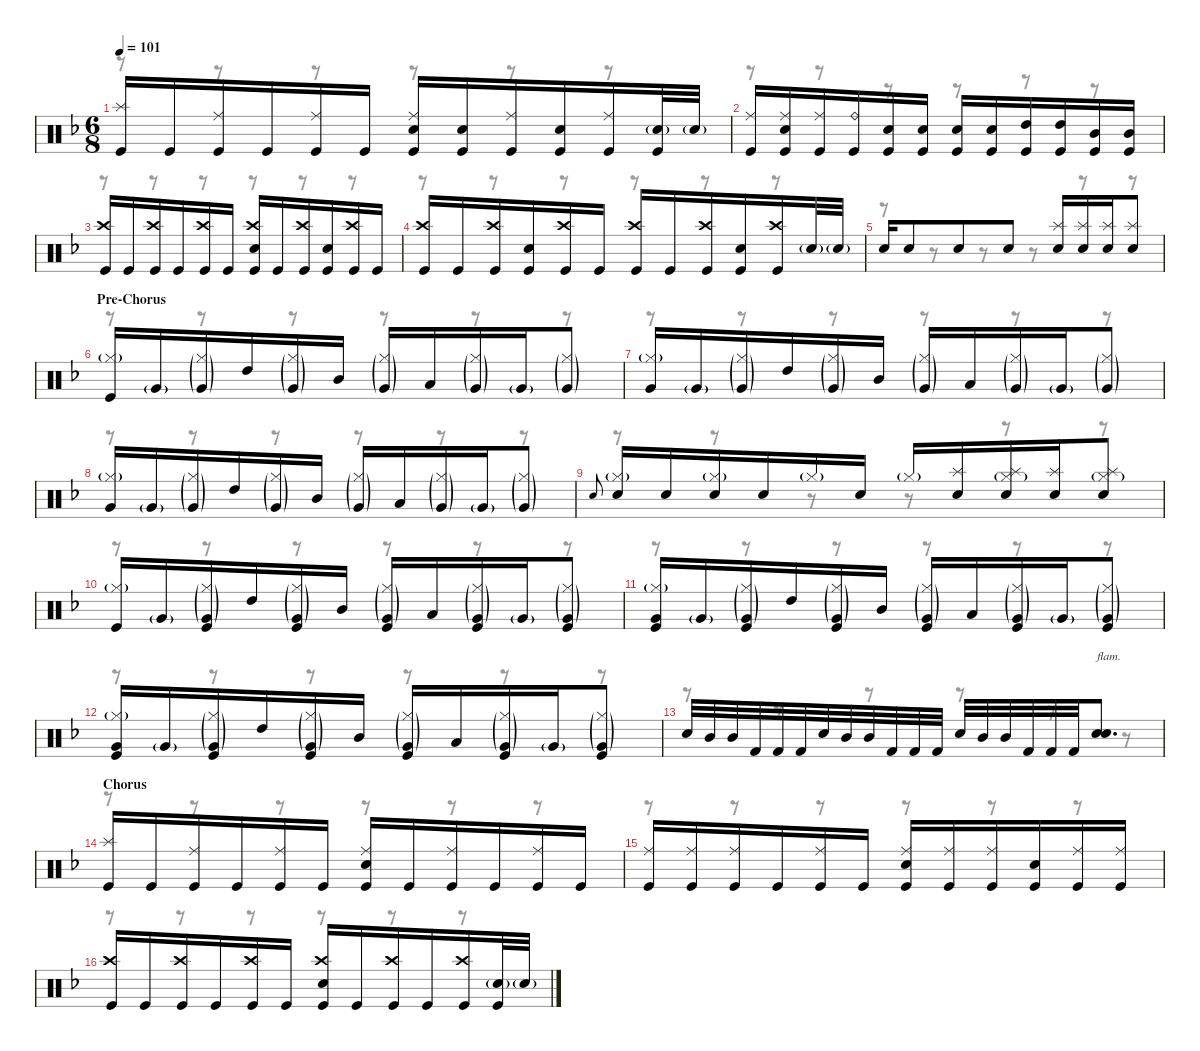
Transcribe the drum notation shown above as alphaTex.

\defaultSystemsLayout 4
\hideDynamics
\bracketExtendMode nobrackets
\singleTrackTrackNamePolicy hidden
\multiTrackTrackNamePolicy hidden
\otherSystemsTrackNameOrientation horizontal
\track ("M. Lopez" "drm.") {instrument percussion}
\staff {score}
\articulation defaults
\voice
\ts (6 8)
\tempo 101
\clef neutral
\ks dminor
("Splash (hit)"{acc forcenatural} "Kick (hit)"{acc forcenatural}).16{dy f beam Up} "Kick (hit)"{acc forcenatural}.16{beam Up} ("Ride (middle)"{acc forcenatural} "Kick (hit)"{acc forcenatural}).16{beam Up} "Kick (hit)"{acc forcenatural}.16{beam Up} ("Ride (middle)"{acc forcenatural} "Kick (hit)"{acc forcenatural}).16{beam Up} "Kick (hit)"{acc forcenatural}.16{beam Up} ("Ride (middle)"{acc forcenatural} "Snare (hit) 2"{acc forcenatural} "Kick (hit)"{acc forcenatural}).16{beam Up} ("Snare (hit) 2"{acc forcenatural} "Kick (hit)"{acc forcenatural}).16{beam Up} ("Ride (middle)"{acc forcenatural} "Kick (hit)"{acc forcenatural}).16{beam Up} ("Snare (hit) 2"{acc forcenatural} "Kick (hit)"{acc forcenatural}).16{beam Up} ("Ride (middle)"{acc forcenatural} "Kick (hit)"{acc forcenatural}).16{beam Up} ("Snare (hit) 2"{g acc forcenatural} "Kick (hit)"{acc forcenatural}).32{beam Up} "Snare (hit) 2"{g acc forcenatural}.32{dy mf beam Up} |
("Ride (middle)"{acc forcenatural} "Kick (hit)"{acc forcenatural}).16{dy f beam Up} ("Ride (middle)"{acc forcenatural} "Snare (hit) 2"{acc forcenatural} "Kick (hit)"{acc forcenatural}).16{beam Up} ("Ride (middle)"{acc forcenatural} "Kick (hit)"{acc forcenatural}).16{beam Up} ("Ride (bell)"{acc forcenatural} "Kick (hit)"{acc forcenatural}).16{beam Up} ("Snare (hit) 2"{acc forcenatural} "Kick (hit)"{acc forcenatural}).16{beam Up} ("Snare (hit) 2"{acc forcenatural} "Kick (hit)"{acc forcenatural}).16{beam Up} ("Snare (hit) 2"{acc forcenatural} "Kick (hit)"{acc forcenatural}).16{beam Up} ("Snare (hit) 2"{acc forcenatural} "Kick (hit)"{acc forcenatural}).16{beam Up} ("High Tom (hit)"{acc forcenatural} "Kick (hit)"{acc forcenatural}).16{beam Up} ("High Tom (hit)"{acc forcenatural} "Kick (hit)"{acc forcenatural}).16{beam Up} ("Mid Tom (hit)"{acc forcenatural} "Kick (hit)"{acc forcenatural}).16{beam Up} ("Mid Tom (hit)"{acc forcenatural} "Kick (hit)"{acc forcenatural}).16{beam Up} |
("Crash high (hit)"{acc forcenatural} "Kick (hit)"{acc forcenatural}).16{beam Up} "Kick (hit)"{acc forcenatural}.16{beam Up} ("Crash high (hit)"{acc forcenatural} "Kick (hit)"{acc forcenatural}).16{beam Up} "Kick (hit)"{acc forcenatural}.16{beam Up} ("Crash high (hit)"{acc forcenatural} "Kick (hit)"{acc forcenatural}).16{beam Up} "Kick (hit)"{acc forcenatural}.16{beam Up} ("Crash high (hit)"{acc forcenatural} "Snare (hit) 2"{acc forcenatural} "Kick (hit)"{acc forcenatural}).16{beam Up} "Kick (hit)"{acc forcenatural}.16{beam Up} ("Crash high (hit)"{acc forcenatural} "Kick (hit)"{acc forcenatural}).16{beam Up} ("Snare (hit) 2"{acc forcenatural} "Kick (hit)"{acc forcenatural}).16{beam Up} ("Crash high (hit)"{acc forcenatural} "Kick (hit)"{acc forcenatural}).16{beam Up} "Kick (hit)"{acc forcenatural}.16{beam Up} |
("Crash high (hit)"{acc forcenatural} "Kick (hit)"{acc forcenatural}).16{beam Up} "Kick (hit)"{acc forcenatural}.16{beam Up} ("Crash high (hit)"{acc forcenatural} "Kick (hit)"{acc forcenatural}).16{beam Up} ("Snare (hit) 2"{acc forcenatural} "Kick (hit)"{acc forcenatural}).16{beam Up} ("Crash high (hit)"{acc forcenatural} "Kick (hit)"{acc forcenatural}).16{beam Up} "Kick (hit)"{acc forcenatural}.16{beam Up} ("Crash high (hit)"{acc forcenatural} "Kick (hit)"{acc forcenatural}).16{beam Up} "Kick (hit)"{acc forcenatural}.16{beam Up} ("Crash high (hit)"{acc forcenatural} "Kick (hit)"{acc forcenatural}).16{beam Up} ("Snare (hit) 2"{acc forcenatural} "Kick (hit)"{acc forcenatural}).16{beam Up} ("Crash high (hit)"{acc forcenatural} "Kick (hit)"{acc forcenatural}).16{beam Up} "Snare (hit) 2"{g acc forcenatural}.32{beam Up} "Snare (hit) 2"{g acc forcenatural}.32{dy ff beam Up} |
"Snare (hit) 2"{acc forcenatural}.16{dy f beam Up} "Snare (hit) 2"{acc forcenatural}.8{beam Up} "Snare (hit) 2"{acc forcenatural}.8{beam Up} "Snare (hit) 2"{acc forcenatural}.8{beam Up} ("Splash (hit)"{acc forcenatural} "Snare (hit) 2"{acc forcenatural}).16{dy mf beam Up} ("Splash (hit)"{acc forcenatural} "Snare (hit) 2"{acc forcenatural}).16{beam Up} ("Splash (hit)"{acc forcenatural} "Snare (hit) 2"{acc forcenatural}).16{beam Up} ("Splash (hit)"{acc forcenatural} "Snare (hit) 2"{acc forcenatural}).8{beam Up} |
\section ("" "Pre-Chorus")
("Hi-Hat (closed)"{g acc forcenatural} "Kick (hit)"{acc forcenatural}).16{beam Up} "Very Low Tom (hit)"{g acc forcenatural}.16{beam Up} ("Hi-Hat (closed)"{g acc forcenatural} "Very Low Tom (hit)"{g acc forcenatural}).16{beam Up} "High Tom (hit)"{acc forcenatural}.16{beam Up} ("Hi-Hat (closed)"{g acc forcenatural} "Very Low Tom (hit)"{g acc forcenatural}).16{beam Up} "Mid Tom (hit)"{acc forcenatural}.16{beam Up} ("Hi-Hat (closed)"{g acc forcenatural} "Very Low Tom (hit)"{g acc forcenatural}).16{beam Up} "Low Tom (hit)"{acc forcenatural}.16{beam Up} ("Hi-Hat (closed)"{g acc forcenatural} "Very Low Tom (hit)"{g acc forcenatural}).16{beam Up} "Very Low Tom (hit)"{g acc forcenatural}.16{dy mp beam Up} ("Hi-Hat (closed)"{g acc forcenatural} "Very Low Tom (hit)"{g acc forcenatural}).8{dy mf beam Up} |
("Hi-Hat (closed)"{g acc forcenatural} "Very Low Tom (hit)"{acc forcenatural}).16{dy mp beam Up} "Very Low Tom (hit)"{g acc forcenatural}.16{dy mf beam Up} ("Hi-Hat (closed)"{g acc forcenatural} "Very Low Tom (hit)"{g acc forcenatural}).16{beam Up} "High Tom (hit)"{acc forcenatural}.16{dy mp beam Up} ("Hi-Hat (closed)"{g acc forcenatural} "Very Low Tom (hit)"{g acc forcenatural}).16{dy mf beam Up} "Mid Tom (hit)"{acc forcenatural}.16{dy mp beam Up} ("Hi-Hat (closed)"{g acc forcenatural} "Very Low Tom (hit)"{g acc forcenatural}).16{dy mf beam Up} "Low Tom (hit)"{acc forcenatural}.16{dy mp beam Up} ("Hi-Hat (closed)"{g acc forcenatural} "Very Low Tom (hit)"{g acc forcenatural}).16{dy mf beam Up} "Very Low Tom (hit)"{g acc forcenatural}.16{beam Up} ("Hi-Hat (closed)"{g acc forcenatural} "Very Low Tom (hit)"{g acc forcenatural}).8{beam Up} |
("Hi-Hat (closed)"{g acc forcenatural} "Very Low Tom (hit)"{acc forcenatural}).16{dy mp beam Up} "Very Low Tom (hit)"{g acc forcenatural}.16{dy mf beam Up} ("Hi-Hat (closed)"{g acc forcenatural} "Very Low Tom (hit)"{g acc forcenatural}).16{beam Up} "High Tom (hit)"{acc forcenatural}.16{beam Up} ("Hi-Hat (closed)"{g acc forcenatural} "Very Low Tom (hit)"{g acc forcenatural}).16{beam Up} "Mid Tom (hit)"{acc forcenatural}.16{beam Up} ("Hi-Hat (closed)"{g acc forcenatural} "Very Low Tom (hit)"{g acc forcenatural}).16{beam Up} "Low Tom (hit)"{acc forcenatural}.16{beam Up} ("Hi-Hat (closed)"{g acc forcenatural} "Very Low Tom (hit)"{g acc forcenatural}).16{beam Up} "Very Low Tom (hit)"{g acc forcenatural}.16{beam Up} ("Hi-Hat (closed)"{g acc forcenatural} "Very Low Tom (hit)"{g acc forcenatural}).8{beam Up} |
"Electric Snare (hit)"{acc forcenatural}.8{gr onbeat beam Up} ("Hi-Hat (closed)"{g acc forcenatural} "Snare (hit) 2"{acc forcenatural}).16{dy f beam Up} "Snare (hit) 2"{acc forcenatural}.16{beam Up} ("Hi-Hat (closed)"{g acc forcenatural} "Snare (hit) 2"{acc forcenatural}).16{beam Up} "Snare (hit) 2"{acc forcenatural}.16{beam Up} "Hi-Hat (closed)"{g acc forcenatural}.16{dy mf beam Up} "Snare (hit) 2"{acc forcenatural}.16{dy f beam Up} "Hi-Hat (closed)"{g acc forcenatural}.16{dy mf beam Up} ("Splash (hit)"{acc forcenatural} "Snare (hit) 2"{acc forcenatural}).16{beam Up} ("Splash (hit)"{acc forcenatural} "Hi-Hat (closed)"{g acc forcenatural} "Snare (hit) 2"{acc forcenatural}).16{beam Up} ("Splash (hit)"{acc forcenatural} "Snare (hit) 2"{acc forcenatural}).16{beam Up} ("Splash (hit)"{acc forcenatural} "Hi-Hat (closed)"{g acc forcenatural} "Snare (hit) 2"{acc forcenatural}).8{beam Up} |
("Hi-Hat (closed)"{g acc forcenatural} "Kick (hit)"{acc forcenatural}).16{beam Up} "Very Low Tom (hit)"{g acc forcenatural}.16{beam Up} ("Hi-Hat (closed)"{g acc forcenatural} "Very Low Tom (hit)"{g acc forcenatural} "Kick (hit)"{acc forcenatural}).16{dy f beam Up} "High Tom (hit)"{acc forcenatural}.16{dy mf beam Up} ("Hi-Hat (closed)"{g acc forcenatural} "Very Low Tom (hit)"{g acc forcenatural} "Kick (hit)"{acc forcenatural}).16{dy f beam Up} "Mid Tom (hit)"{acc forcenatural}.16{dy mf beam Up} ("Hi-Hat (closed)"{g acc forcenatural} "Very Low Tom (hit)"{g acc forcenatural} "Kick (hit)"{acc forcenatural}).16{dy f beam Up} "Low Tom (hit)"{acc forcenatural}.16{dy mf beam Up} ("Hi-Hat (closed)"{g acc forcenatural} "Very Low Tom (hit)"{g acc forcenatural} "Kick (hit)"{acc forcenatural}).16{dy f beam Up} "Very Low Tom (hit)"{g acc forcenatural}.16{dy mp beam Up} ("Hi-Hat (closed)"{g acc forcenatural} "Very Low Tom (hit)"{g acc forcenatural} "Kick (hit)"{acc forcenatural}).8{dy f beam Up} |
("Hi-Hat (closed)"{g acc forcenatural} "Very Low Tom (hit)"{acc forcenatural} "Kick (hit)"{acc forcenatural}).16{dy mp beam Up} "Very Low Tom (hit)"{g acc forcenatural}.16{dy mf beam Up} ("Hi-Hat (closed)"{g acc forcenatural} "Very Low Tom (hit)"{g acc forcenatural} "Kick (hit)"{acc forcenatural}).16{dy f beam Up} "High Tom (hit)"{acc forcenatural}.16{dy mp beam Up} ("Hi-Hat (closed)"{g acc forcenatural} "Very Low Tom (hit)"{g acc forcenatural} "Kick (hit)"{acc forcenatural}).16{dy f beam Up} "Mid Tom (hit)"{acc forcenatural}.16{dy mp beam Up} ("Hi-Hat (closed)"{g acc forcenatural} "Very Low Tom (hit)"{g acc forcenatural} "Kick (hit)"{acc forcenatural}).16{dy f beam Up} "Low Tom (hit)"{acc forcenatural}.16{dy mp beam Up} ("Hi-Hat (closed)"{g acc forcenatural} "Very Low Tom (hit)"{g acc forcenatural} "Kick (hit)"{acc forcenatural}).16{dy f beam Up} "Very Low Tom (hit)"{g acc forcenatural}.16{dy mf beam Up} ("Hi-Hat (closed)"{g acc forcenatural} "Very Low Tom (hit)"{g acc forcenatural} "Kick (hit)"{acc forcenatural}).8{dy f beam Up} |
("Hi-Hat (closed)"{g acc forcenatural} "Very Low Tom (hit)"{acc forcenatural} "Kick (hit)"{acc forcenatural}).16{dy mp beam Up} "Very Low Tom (hit)"{g acc forcenatural}.16{dy mf beam Up} ("Hi-Hat (closed)"{g acc forcenatural} "Very Low Tom (hit)"{g acc forcenatural} "Kick (hit)"{acc forcenatural}).16{dy f beam Up} "High Tom (hit)"{acc forcenatural}.16{dy mf beam Up} ("Hi-Hat (closed)"{g acc forcenatural} "Very Low Tom (hit)"{g acc forcenatural} "Kick (hit)"{acc forcenatural}).16{dy f beam Up} "Mid Tom (hit)"{acc forcenatural}.16{dy mf beam Up} ("Hi-Hat (closed)"{g acc forcenatural} "Very Low Tom (hit)"{g acc forcenatural} "Kick (hit)"{acc forcenatural}).16{dy f beam Up} "Low Tom (hit)"{acc forcenatural}.16{dy mf beam Up} ("Hi-Hat (closed)"{g acc forcenatural} "Very Low Tom (hit)"{g acc forcenatural} "Kick (hit)"{acc forcenatural}).16{dy f beam Up} "Very Low Tom (hit)"{g acc forcenatural}.16{dy mf beam Up} ("Hi-Hat (closed)"{g acc forcenatural} "Very Low Tom (hit)"{g acc forcenatural} "Kick (hit)"{acc forcenatural}).8{dy f beam Up} |
"Snare (hit) 2"{acc forcenatural}.32{beam Up} "Mid Tom (hit)"{acc forcenatural}.32{beam Up} "Mid Tom (hit)"{acc forcenatural}.32{beam Up} "Kick (hit) 2"{acc forcenatural}.32{beam Up} "Kick (hit) 2"{acc forcenatural}.32{beam Up} "Kick (hit) 2"{acc forcenatural}.32{beam Up} "Snare (hit) 2"{acc forcenatural}.32{beam Up} "Mid Tom (hit)"{acc forcenatural}.32{beam Up} "Mid Tom (hit)"{acc forcenatural}.32{beam Up} "Kick (hit) 2"{acc forcenatural}.32{beam Up} "Kick (hit) 2"{acc forcenatural}.32{beam Up} "Kick (hit) 2"{acc forcenatural}.32{beam Up} "Snare (hit) 2"{acc forcenatural}.32{beam Up} "Mid Tom (hit)"{acc forcenatural}.32{beam Up} "Mid Tom (hit)"{acc forcenatural}.32{beam Up} "Kick (hit) 2"{acc forcenatural}.32{beam Up} "Kick (hit) 2"{acc forcenatural}.32{beam Up} "Kick (hit) 2"{acc forcenatural}.32{beam Up} ("Snare (hit) 2"{acc forcenatural} "Snare (hit) 2"{acc forcenatural}).8{d txt "flam." beam Up} |
\section ("" "Chorus")
("Splash (hit)"{acc forcenatural} "Kick (hit)"{acc forcenatural}).16{beam Up} "Kick (hit)"{acc forcenatural}.16{beam Up} ("Ride (middle)"{acc forcenatural} "Kick (hit)"{acc forcenatural}).16{beam Up} "Kick (hit)"{acc forcenatural}.16{beam Up} ("Ride (middle)"{acc forcenatural} "Kick (hit)"{acc forcenatural}).16{beam Up} "Kick (hit)"{acc forcenatural}.16{beam Up} ("Ride (middle)"{acc forcenatural} "Snare (hit) 2"{acc forcenatural} "Kick (hit)"{acc forcenatural}).16{beam Up} "Kick (hit)"{acc forcenatural}.16{beam Up} ("Ride (middle)"{acc forcenatural} "Kick (hit)"{acc forcenatural}).16{beam Up} "Kick (hit)"{acc forcenatural}.16{beam Up} ("Ride (middle)"{acc forcenatural} "Kick (hit)"{acc forcenatural}).16{beam Up} "Kick (hit)"{acc forcenatural}.16{beam Up} |
("Ride (middle)"{acc forcenatural} "Kick (hit)"{acc forcenatural}).16{beam Up} ("Ride (middle)"{acc forcenatural} "Kick (hit)"{acc forcenatural}).16{beam Up} ("Ride (middle)"{acc forcenatural} "Kick (hit)"{acc forcenatural}).16{beam Up} "Kick (hit)"{acc forcenatural}.16{beam Up} ("Ride (middle)"{acc forcenatural} "Kick (hit)"{acc forcenatural}).16{beam Up} "Kick (hit)"{acc forcenatural}.16{beam Up} ("Ride (middle)"{acc forcenatural} "Snare (hit) 2"{acc forcenatural} "Kick (hit)"{acc forcenatural}).16{beam Up} ("Ride (middle)"{acc forcenatural} "Kick (hit)"{acc forcenatural}).16{beam Up} ("Ride (middle)"{acc forcenatural} "Kick (hit)"{acc forcenatural}).16{beam Up} ("Snare (hit) 2"{acc forcenatural} "Kick (hit)"{acc forcenatural}).16{beam Up} ("Ride (middle)"{acc forcenatural} "Kick (hit)"{acc forcenatural}).16{beam Up} ("Ride (middle)"{acc forcenatural} "Kick (hit)"{acc forcenatural}).16{beam Up} |
("Crash high (hit)"{acc forcenatural} "Kick (hit)"{acc forcenatural}).16{beam Up} "Kick (hit)"{acc forcenatural}.16{beam Up} ("Crash high (hit)"{acc forcenatural} "Kick (hit)"{acc forcenatural}).16{beam Up} "Kick (hit)"{acc forcenatural}.16{beam Up} ("Crash high (hit)"{acc forcenatural} "Kick (hit)"{acc forcenatural}).16{beam Up} "Kick (hit)"{acc forcenatural}.16{beam Up} ("Crash high (hit)"{acc forcenatural} "Snare (hit) 2"{acc forcenatural} "Kick (hit)"{acc forcenatural}).16{beam Up} "Kick (hit)"{acc forcenatural}.16{beam Up} ("Crash high (hit)"{acc forcenatural} "Kick (hit)"{acc forcenatural}).16{beam Up} "Kick (hit)"{acc forcenatural}.16{beam Up} ("Crash high (hit)"{acc forcenatural} "Kick (hit)"{acc forcenatural}).16{beam Up} ("Snare (hit) 2"{g acc forcenatural} "Kick (hit)"{acc forcenatural}).32{beam Up} "Snare (hit) 2"{g acc forcenatural}.32{dy ff beam Up}
\voice
\clef neutral
\ottava regular
\simile none
\ks dminor
r.8{dy mf beam Down} r.8{beam Down} r.8{beam Down} r.8{beam Down} r.8{beam Down} r.8{beam Down} |
r.8{beam Down} r.8{beam Down} r.8{beam Down} r.8{beam Down} r.8{beam Down} r.8{beam Down} |
r.8{beam Down} r.8{beam Down} r.8{beam Down} r.8{beam Down} r.8{beam Down} r.8{beam Down} |
r.8{beam Down} r.8{beam Down} r.8{beam Down} r.8{beam Down} r.8{beam Down} r.8{beam Down} |
r.8{beam Down} r.8{beam Down} r.8{beam Down} r.8{beam Down} r.8{beam Down} r.8{beam Down} |
r.8{beam Down} r.8{beam Down} r.8{beam Down} r.8{beam Down} r.8{beam Down} r.8{beam Down} |
r.8{beam Down} r.8{beam Down} r.8{beam Down} r.8{beam Down} r.8{beam Down} r.8{beam Down} |
r.8{beam Down} r.8{beam Down} r.8{beam Down} r.8{beam Down} r.8{beam Down} r.8{beam Down} |
r.8{beam Down} r.8{beam Down} r.8{beam Down} r.8{beam Down} r.8{beam Down} r.8{beam Down} |
r.8{beam Down} r.8{beam Down} r.8{beam Down} r.8{beam Down} r.8{beam Down} r.8{beam Down} |
r.8{beam Down} r.8{beam Down} r.8{beam Down} r.8{beam Down} r.8{beam Down} r.8{beam Down} |
r.8{beam Down} r.8{beam Down} r.8{beam Down} r.8{beam Down} r.8{beam Down} r.8{beam Down} |
r.8{beam Down} r.8{beam Down} r.8{beam Down} r.8{beam Down} r.8{beam Down} r.8{beam Down} |
r.8{beam Down} r.8{beam Down} r.8{beam Down} r.8{beam Down} r.8{beam Down} r.8{beam Down} |
r.8{beam Down} r.8{beam Down} r.8{beam Down} r.8{beam Down} r.8{beam Down} r.8{beam Down} |
r.8{beam Down} r.8{beam Down} r.8{beam Down} r.8{beam Down} r.8{beam Down} r.8{beam Down}
